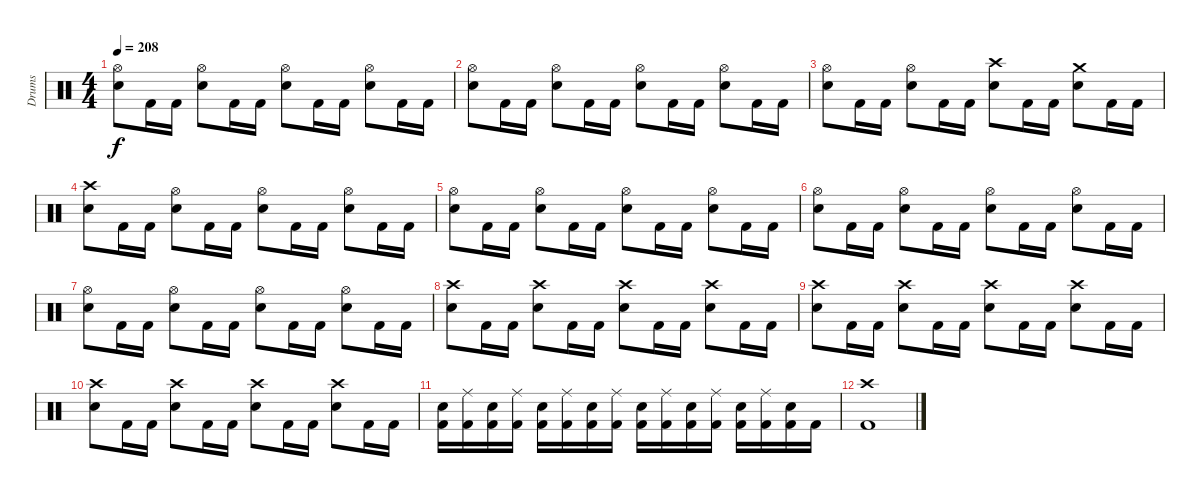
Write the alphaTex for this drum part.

\track ("Drums" "Drums") {instrument percussion}
\staff {score}
\articulation defaults
\ts (4 4)
\tempo 208
\clef neutral
\ks c
("Hi-Hat (open)" "Snare (hit) 2").8{dy f} "Kick (hit) 2".16 "Kick (hit) 2".16 ("Hi-Hat (open)" "Snare (hit) 2").8 "Kick (hit) 2".16 "Kick (hit) 2".16 ("Hi-Hat (open)" "Snare (hit) 2").8 "Kick (hit) 2".16 "Kick (hit) 2".16 ("Hi-Hat (open)" "Snare (hit) 2").8 "Kick (hit) 2".16 "Kick (hit) 2".16 |
("Hi-Hat (open)" "Snare (hit) 2").8 "Kick (hit) 2".16 "Kick (hit) 2".16 ("Hi-Hat (open)" "Snare (hit) 2").8 "Kick (hit) 2".16 "Kick (hit) 2".16 ("Hi-Hat (open)" "Snare (hit) 2").8 "Kick (hit) 2".16 "Kick (hit) 2".16 ("Hi-Hat (open)" "Snare (hit) 2").8 "Kick (hit) 2".16 "Kick (hit) 2".16 |
("Hi-Hat (open)" "Snare (hit) 2").8 "Kick (hit) 2".16 "Kick (hit) 2".16 ("Hi-Hat (open)" "Snare (hit) 2").8 "Kick (hit) 2".16 "Kick (hit) 2".16 ("Crash high (hit)" "Snare (hit) 2").8 "Kick (hit) 2".16 "Kick (hit) 2".16 ("Crash medium (hit)" "Snare (hit) 2").8 "Kick (hit) 2".16 "Kick (hit) 2".16 |
("Crash high (hit)" "Snare (hit) 2").8 "Kick (hit) 2".16 "Kick (hit) 2".16 ("Hi-Hat (open)" "Snare (hit) 2").8 "Kick (hit) 2".16 "Kick (hit) 2".16 ("Hi-Hat (open)" "Snare (hit) 2").8 "Kick (hit) 2".16 "Kick (hit) 2".16 ("Hi-Hat (open)" "Snare (hit) 2").8 "Kick (hit) 2".16 "Kick (hit) 2".16 |
("Hi-Hat (open)" "Snare (hit) 2").8 "Kick (hit) 2".16 "Kick (hit) 2".16 ("Hi-Hat (open)" "Snare (hit) 2").8 "Kick (hit) 2".16 "Kick (hit) 2".16 ("Hi-Hat (open)" "Snare (hit) 2").8 "Kick (hit) 2".16 "Kick (hit) 2".16 ("Hi-Hat (open)" "Snare (hit) 2").8 "Kick (hit) 2".16 "Kick (hit) 2".16 |
("Hi-Hat (open)" "Snare (hit) 2").8 "Kick (hit) 2".16 "Kick (hit) 2".16 ("Hi-Hat (open)" "Snare (hit) 2").8 "Kick (hit) 2".16 "Kick (hit) 2".16 ("Hi-Hat (open)" "Snare (hit) 2").8 "Kick (hit) 2".16 "Kick (hit) 2".16 ("Hi-Hat (open)" "Snare (hit) 2").8 "Kick (hit) 2".16 "Kick (hit) 2".16 |
("Hi-Hat (open)" "Snare (hit) 2").8 "Kick (hit) 2".16 "Kick (hit) 2".16 ("Hi-Hat (open)" "Snare (hit) 2").8 "Kick (hit) 2".16 "Kick (hit) 2".16 ("Hi-Hat (open)" "Snare (hit) 2").8 "Kick (hit) 2".16 "Kick (hit) 2".16 ("Hi-Hat (open)" "Snare (hit) 2").8 "Kick (hit) 2".16 "Kick (hit) 2".16 |
("Crash high (hit)" "Snare (hit) 2").8 "Kick (hit) 2".16 "Kick (hit) 2".16 ("Crash high (hit)" "Snare (hit) 2").8 "Kick (hit) 2".16 "Kick (hit) 2".16 ("Crash high (hit)" "Snare (hit) 2").8 "Kick (hit) 2".16 "Kick (hit) 2".16 ("Crash high (hit)" "Snare (hit) 2").8 "Kick (hit) 2".16 "Kick (hit) 2".16 |
("Crash high (hit)" "Snare (hit) 2").8 "Kick (hit) 2".16 "Kick (hit) 2".16 ("Crash high (hit)" "Snare (hit) 2").8 "Kick (hit) 2".16 "Kick (hit) 2".16 ("Crash high (hit)" "Snare (hit) 2").8 "Kick (hit) 2".16 "Kick (hit) 2".16 ("Crash high (hit)" "Snare (hit) 2").8 "Kick (hit) 2".16 "Kick (hit) 2".16 |
("Crash high (hit)" "Snare (hit) 2").8 "Kick (hit) 2".16 "Kick (hit) 2".16 ("Crash high (hit)" "Snare (hit) 2").8 "Kick (hit) 2".16 "Kick (hit) 2".16 ("Crash high (hit)" "Snare (hit) 2").8 "Kick (hit) 2".16 "Kick (hit) 2".16 ("Crash high (hit)" "Snare (hit) 2").8 "Kick (hit) 2".16 "Kick (hit) 2".16 |
("Snare (hit) 2" "Kick (hit) 2").16 ("Ride (middle)" "Kick (hit) 2").16 ("Snare (hit) 2" "Kick (hit) 2").16 ("Ride (middle)" "Kick (hit) 2").16 ("Snare (hit) 2" "Kick (hit) 2").16 ("Ride (middle)" "Kick (hit) 2").16 ("Snare (hit) 2" "Kick (hit) 2").16 ("Ride (middle)" "Kick (hit) 2").16 ("Snare (hit) 2" "Kick (hit) 2").16 ("Ride (middle)" "Kick (hit) 2").16 ("Snare (hit) 2" "Kick (hit) 2").16 ("Ride (middle)" "Kick (hit) 2").16 ("Snare (hit) 2" "Kick (hit) 2").16 ("Ride (middle)" "Kick (hit) 2").16 ("Snare (hit) 2" "Kick (hit) 2").16 "Kick (hit) 2".16 |
("Crash high (hit)" "Kick (hit) 2").1
